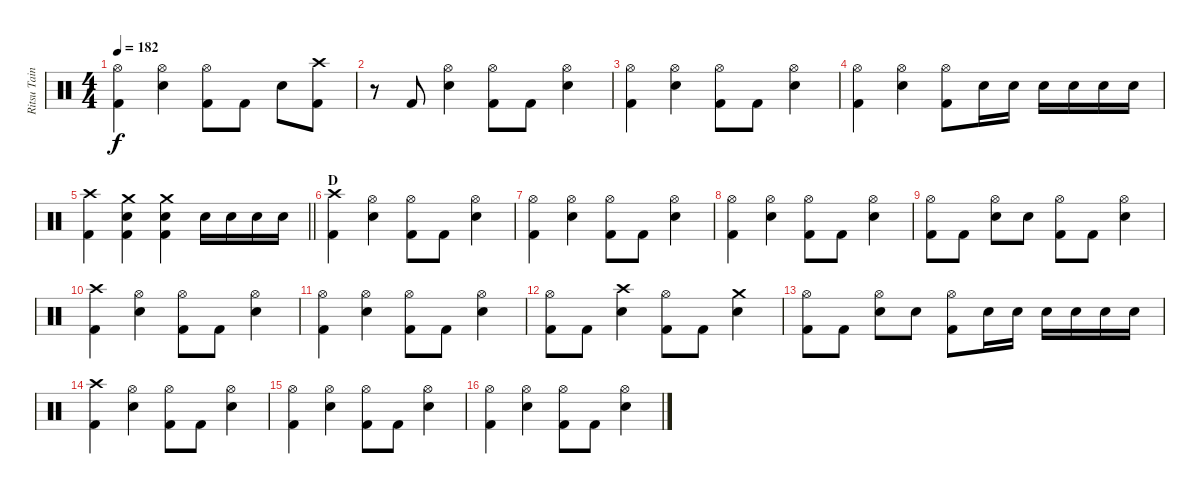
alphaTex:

\track ("Ritsu Tainaka" "Ritsu Tain") {instrument percussion}
\staff {score}
\articulation defaults
\ts (4 4)
\tempo 182
\clef neutral
\ks c
("Hi-Hat (open)" "Kick (hit) 2").4{dy f} ("Hi-Hat (open)" "Electric Snare (hit)").4 ("Hi-Hat (open)" "Kick (hit) 2").8 "Kick (hit) 2".8 "Electric Snare (hit)".8 ("Crash high (hit)" "Kick (hit) 2").8 |
r.8 "Kick (hit) 2".8 ("Hi-Hat (open)" "Electric Snare (hit)").4 ("Hi-Hat (open)" "Kick (hit) 2").8 "Kick (hit) 2".8 ("Hi-Hat (open)" "Electric Snare (hit)").4 |
("Hi-Hat (open)" "Kick (hit) 2").4 ("Hi-Hat (open)" "Electric Snare (hit)").4 ("Hi-Hat (open)" "Kick (hit) 2").8 "Kick (hit) 2".8 ("Hi-Hat (open)" "Electric Snare (hit)").4 |
("Hi-Hat (open)" "Kick (hit) 2").4 ("Hi-Hat (open)" "Electric Snare (hit)").4 ("Hi-Hat (open)" "Kick (hit) 2").8 "Electric Snare (hit)".16 "Electric Snare (hit)".16 "Electric Snare (hit)".16 "Electric Snare (hit)".16 "Electric Snare (hit)".16 "Electric Snare (hit)".16 |
\barLineRight lightlight
("Crash high (hit)" "Kick (hit) 2").4 ("Crash medium (hit)" "Electric Snare (hit)" "Kick (hit) 2").4 ("Crash medium (hit)" "Electric Snare (hit)" "Kick (hit) 2").4 "Electric Snare (hit)".16 "Electric Snare (hit)".16 "Electric Snare (hit)".16 "Electric Snare (hit)".16 |
\section ("" "D")
("Crash high (hit)" "Kick (hit) 2").4 ("Hi-Hat (open)" "Electric Snare (hit)").4 ("Hi-Hat (open)" "Kick (hit) 2").8 "Kick (hit) 2".8 ("Hi-Hat (open)" "Electric Snare (hit)").4 |
("Hi-Hat (open)" "Kick (hit) 2").4 ("Hi-Hat (open)" "Electric Snare (hit)").4 ("Hi-Hat (open)" "Kick (hit) 2").8 "Kick (hit) 2".8 ("Hi-Hat (open)" "Electric Snare (hit)").4 |
("Hi-Hat (open)" "Kick (hit) 2").4 ("Hi-Hat (open)" "Electric Snare (hit)").4 ("Hi-Hat (open)" "Kick (hit) 2").8 "Kick (hit) 2".8 ("Hi-Hat (open)" "Electric Snare (hit)").4 |
("Hi-Hat (open)" "Kick (hit) 2").8 "Kick (hit) 2".8 ("Hi-Hat (open)" "Electric Snare (hit)").8 "Electric Snare (hit)".8 ("Hi-Hat (open)" "Kick (hit) 2").8 "Kick (hit) 2".8 ("Hi-Hat (open)" "Electric Snare (hit)").4 |
("Crash high (hit)" "Kick (hit) 2").4 ("Hi-Hat (open)" "Electric Snare (hit)").4 ("Hi-Hat (open)" "Kick (hit) 2").8 "Kick (hit) 2".8 ("Hi-Hat (open)" "Electric Snare (hit)").4 |
("Hi-Hat (open)" "Kick (hit) 2").4 ("Hi-Hat (open)" "Electric Snare (hit)").4 ("Hi-Hat (open)" "Kick (hit) 2").8 "Kick (hit) 2".8 ("Hi-Hat (open)" "Electric Snare (hit)").4 |
("Hi-Hat (open)" "Kick (hit) 2").8 "Kick (hit) 2".8 ("Crash high (hit)" "Electric Snare (hit)").4 ("Hi-Hat (open)" "Kick (hit) 2").8 "Kick (hit) 2".8 ("Crash medium (hit)" "Electric Snare (hit)").4 |
("Hi-Hat (open)" "Kick (hit) 2").8 "Kick (hit) 2".8 ("Hi-Hat (open)" "Electric Snare (hit)").8 "Electric Snare (hit)".8 ("Hi-Hat (open)" "Kick (hit) 2").8 "Electric Snare (hit)".16 "Electric Snare (hit)".16 "Electric Snare (hit)".16 "Electric Snare (hit)".16 "Electric Snare (hit)".16 "Electric Snare (hit)".16 |
("Crash high (hit)" "Kick (hit) 2").4 ("Hi-Hat (open)" "Electric Snare (hit)").4 ("Hi-Hat (open)" "Kick (hit) 2").8 "Kick (hit) 2".8 ("Hi-Hat (open)" "Electric Snare (hit)").4 |
("Hi-Hat (open)" "Kick (hit) 2").4 ("Hi-Hat (open)" "Electric Snare (hit)").4 ("Hi-Hat (open)" "Kick (hit) 2").8 "Kick (hit) 2".8 ("Hi-Hat (open)" "Electric Snare (hit)").4 |
("Hi-Hat (open)" "Kick (hit) 2").4 ("Hi-Hat (open)" "Electric Snare (hit)").4 ("Hi-Hat (open)" "Kick (hit) 2").8 "Kick (hit) 2".8 ("Hi-Hat (open)" "Electric Snare (hit)").4
